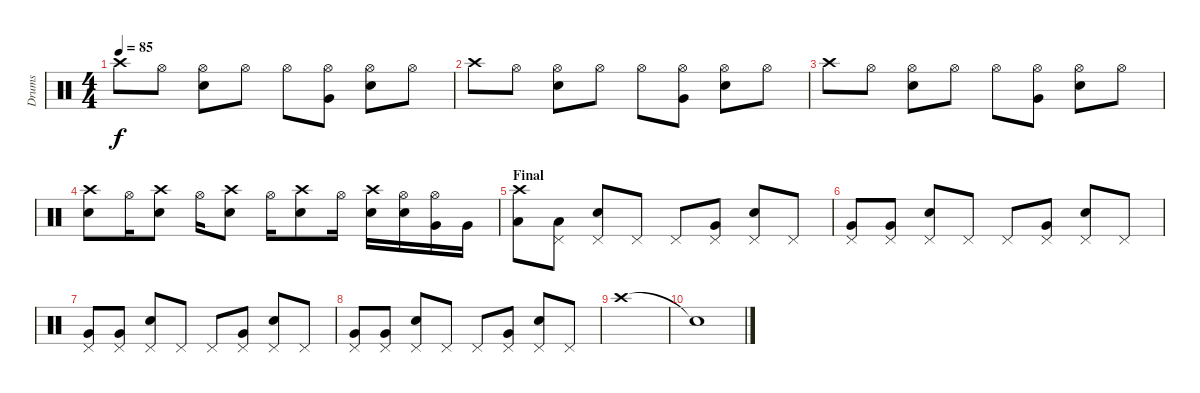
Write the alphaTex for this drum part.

\track ("Drums" "Drums") {instrument percussion}
\staff {score}
\articulation defaults
\ts (4 4)
\tempo 85
\clef neutral
\ks c "Crash high (hit)".8{dy f} "Hi-Hat (open)".8
("Hi-Hat (open)" "Electric Snare (hit)").8 "Hi-Hat (open)".8 "Hi-Hat (open)".8 ("Hi-Hat (open)" "Very Low Tom (hit)").8 ("Hi-Hat (open)" "Electric Snare (hit)").8 "Hi-Hat (open)".8 |
"Crash high (hit)".8 "Hi-Hat (open)".8 ("Hi-Hat (open)" "Electric Snare (hit)").8 "Hi-Hat (open)".8 "Hi-Hat (open)".8 ("Hi-Hat (open)" "Very Low Tom (hit)").8 ("Hi-Hat (open)" "Electric Snare (hit)").8 "Hi-Hat (open)".8 |
"Crash high (hit)".8 "Hi-Hat (open)".8 ("Hi-Hat (open)" "Electric Snare (hit)").8 "Hi-Hat (open)".8 "Hi-Hat (open)".8 ("Hi-Hat (open)" "Very Low Tom (hit)").8 ("Hi-Hat (open)" "Electric Snare (hit)").8 "Hi-Hat (open)".8 |
("Crash high (hit)" "Electric Snare (hit)").8 "Hi-Hat (open)".16 ("Crash high (hit)" "Electric Snare (hit)").8 "Hi-Hat (open)".16 ("Crash high (hit)" "Electric Snare (hit)").8 "Hi-Hat (open)".16 ("Crash high (hit)" "Electric Snare (hit)").8 "Hi-Hat (open)".16 ("Crash high (hit)" "Electric Snare (hit)").16 ("Hi-Hat (open)" "Electric Snare (hit)").16 ("Hi-Hat (open)" "Very Low Tom (hit)").16 "Very Low Tom (hit)".16 |
\section ("" "Final")
("Crash high (hit)" "Low Floor Tom (hit)").8 ("Pedal Hi-Hat (hit)" "Low Floor Tom (hit)").8 ("Pedal Hi-Hat (hit)" "Electric Snare (hit)").8 "Pedal Hi-Hat (hit)".8 "Pedal Hi-Hat (hit)".8 ("Pedal Hi-Hat (hit)" "Very Low Tom (hit)").8 ("Pedal Hi-Hat (hit)" "Electric Snare (hit)").8 "Pedal Hi-Hat (hit)".8 |
("Pedal Hi-Hat (hit)" "Very Low Tom (hit)").8 ("Pedal Hi-Hat (hit)" "Very Low Tom (hit)").8 ("Pedal Hi-Hat (hit)" "Electric Snare (hit)").8 "Pedal Hi-Hat (hit)".8 "Pedal Hi-Hat (hit)".8 ("Pedal Hi-Hat (hit)" "Very Low Tom (hit)").8 ("Pedal Hi-Hat (hit)" "Electric Snare (hit)").8 "Pedal Hi-Hat (hit)".8 |
("Pedal Hi-Hat (hit)" "Very Low Tom (hit)").8 ("Pedal Hi-Hat (hit)" "Very Low Tom (hit)").8 ("Pedal Hi-Hat (hit)" "Electric Snare (hit)").8 "Pedal Hi-Hat (hit)".8 "Pedal Hi-Hat (hit)".8 ("Pedal Hi-Hat (hit)" "Very Low Tom (hit)").8 ("Pedal Hi-Hat (hit)" "Electric Snare (hit)").8 "Pedal Hi-Hat (hit)".8 |
("Pedal Hi-Hat (hit)" "Very Low Tom (hit)").8 ("Pedal Hi-Hat (hit)" "Very Low Tom (hit)").8 ("Pedal Hi-Hat (hit)" "Electric Snare (hit)").8 "Pedal Hi-Hat (hit)".8 "Pedal Hi-Hat (hit)".8 ("Pedal Hi-Hat (hit)" "Very Low Tom (hit)").8 ("Pedal Hi-Hat (hit)" "Electric Snare (hit)").8 "Pedal Hi-Hat (hit)".8 |
"Crash high (hit)".1 |
"Snare (hit)"{t}.1
